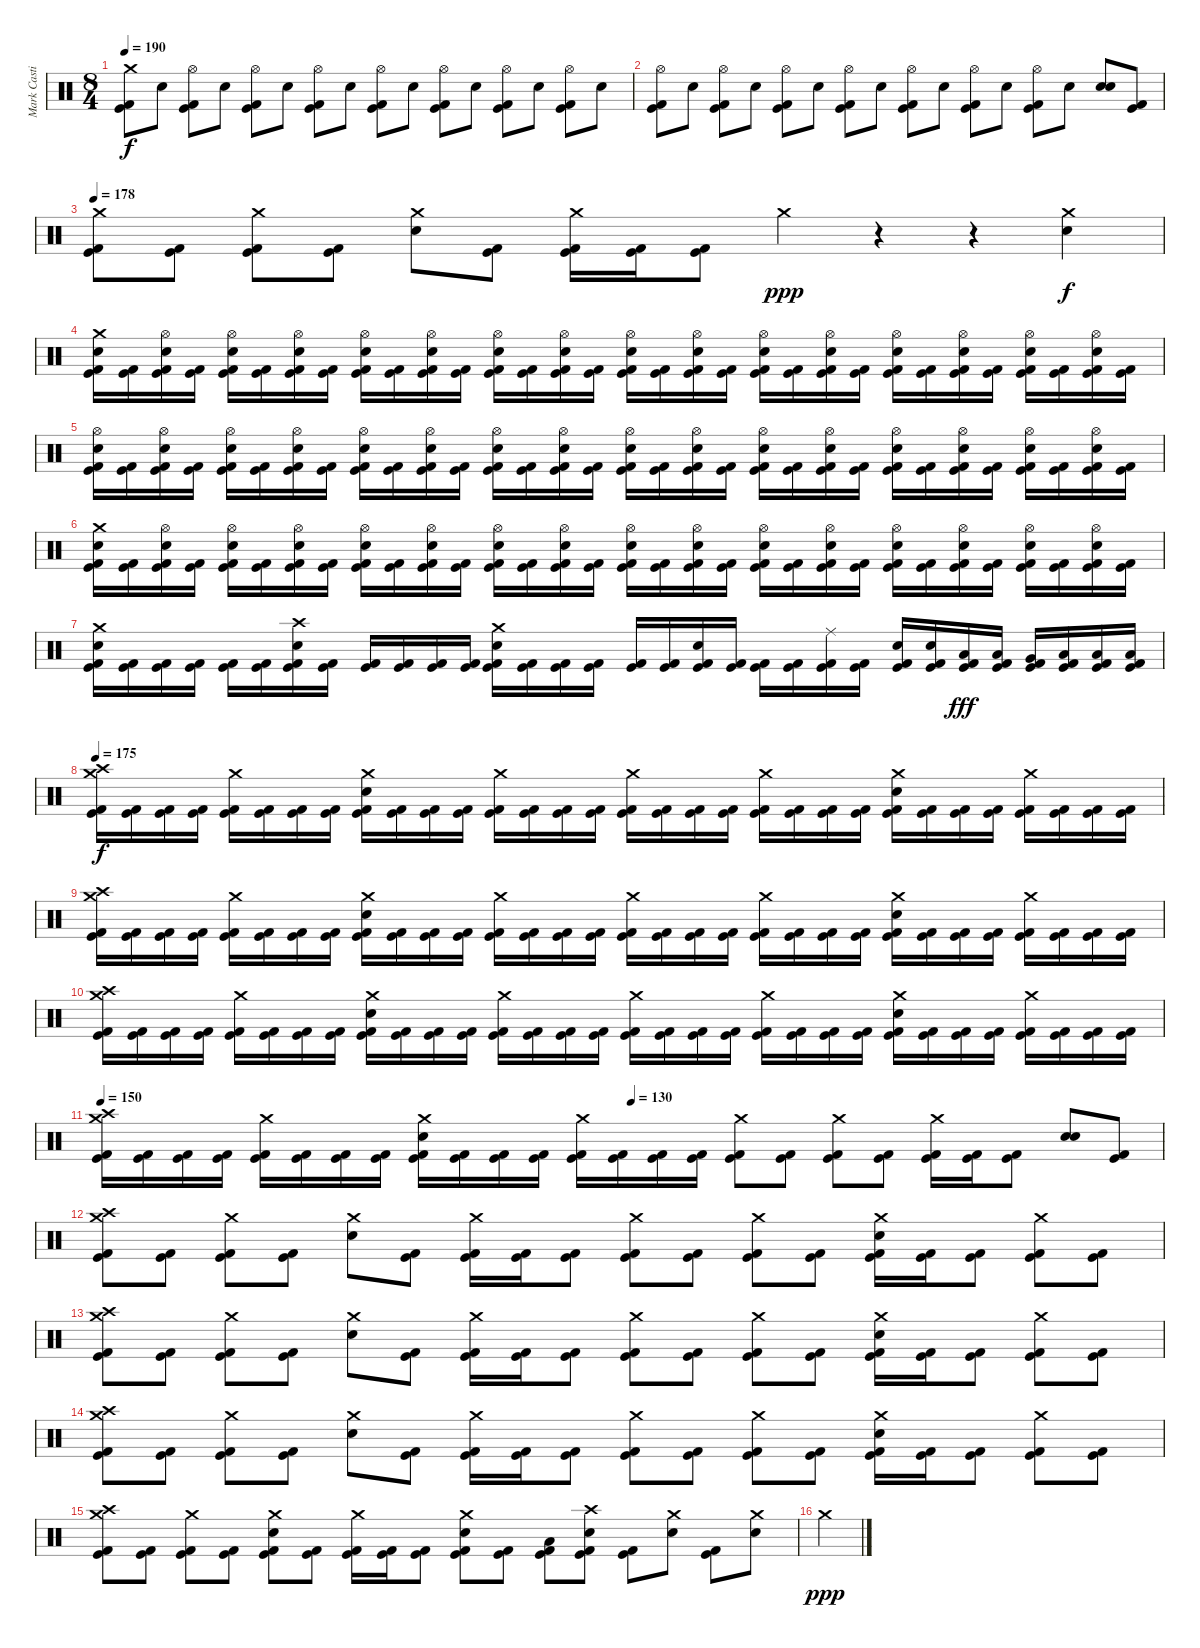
\track ("Mark Castillo" "Mark Casti") {instrument percussion}
\staff {score}
\articulation defaults
\ts (8 4)
\tempo 190
\clef neutral
\ks c
("Crash medium (hit)" "Kick (hit)" "Kick (hit) 2").8{dy f} "Electric Snare (hit)".8 ("Hi-Hat (open)" "Kick (hit)" "Kick (hit) 2").8 "Electric Snare (hit)".8 ("Hi-Hat (open)" "Kick (hit)" "Kick (hit) 2").8 "Electric Snare (hit)".8 ("Hi-Hat (open)" "Kick (hit)" "Kick (hit) 2").8 "Electric Snare (hit)".8 ("Hi-Hat (open)" "Kick (hit)" "Kick (hit) 2").8 "Electric Snare (hit)".8 ("Hi-Hat (open)" "Kick (hit)" "Kick (hit) 2").8 "Electric Snare (hit)".8 ("Hi-Hat (open)" "Kick (hit)" "Kick (hit) 2").8 "Electric Snare (hit)".8 ("Hi-Hat (open)" "Kick (hit)" "Kick (hit) 2").8 "Electric Snare (hit)".8 |
("Hi-Hat (open)" "Kick (hit)" "Kick (hit) 2").8 "Electric Snare (hit)".8 ("Hi-Hat (open)" "Kick (hit)" "Kick (hit) 2").8 "Electric Snare (hit)".8 ("Hi-Hat (open)" "Kick (hit)" "Kick (hit) 2").8 "Electric Snare (hit)".8 ("Hi-Hat (open)" "Kick (hit)" "Kick (hit) 2").8 "Electric Snare (hit)".8 ("Hi-Hat (open)" "Kick (hit)" "Kick (hit) 2").8 "Electric Snare (hit)".8 ("Hi-Hat (open)" "Kick (hit)" "Kick (hit) 2").8 "Electric Snare (hit)".8 ("Hi-Hat (open)" "Kick (hit)" "Kick (hit) 2").8 "Electric Snare (hit)".8 ("Electric Snare (hit)" "Electric Snare (hit)").8{bu 240} ("Kick (hit)" "Kick (hit) 2").8 |
\tempo 178
("Crash medium (hit)" "Kick (hit)" "Kick (hit) 2").8 ("Kick (hit)" "Kick (hit) 2").8 ("Crash medium (hit)" "Kick (hit)" "Kick (hit) 2").8 ("Kick (hit)" "Kick (hit) 2").8 ("Crash medium (hit)" "Electric Snare (hit)").8 ("Kick (hit)" "Kick (hit) 2").8 ("Crash medium (hit)" "Kick (hit)" "Kick (hit) 2").16 ("Kick (hit)" "Kick (hit) 2").16 ("Kick (hit)" "Kick (hit) 2").8 "Crash medium (hit)".4{dy ppp} r.4 r.4 ("Crash medium (hit)" "Electric Snare (hit)").4{dy f} |
("Crash medium (hit)" "Electric Snare (hit)" "Kick (hit)" "Kick (hit) 2").16 ("Kick (hit)" "Kick (hit) 2").16 ("Hi-Hat (open)" "Electric Snare (hit)" "Kick (hit)" "Kick (hit) 2").16 ("Kick (hit)" "Kick (hit) 2").16 ("Hi-Hat (open)" "Electric Snare (hit)" "Kick (hit)" "Kick (hit) 2").16 ("Kick (hit)" "Kick (hit) 2").16 ("Hi-Hat (open)" "Electric Snare (hit)" "Kick (hit)" "Kick (hit) 2").16 ("Kick (hit)" "Kick (hit) 2").16 ("Hi-Hat (open)" "Electric Snare (hit)" "Kick (hit)" "Kick (hit) 2").16 ("Kick (hit)" "Kick (hit) 2").16 ("Hi-Hat (open)" "Electric Snare (hit)" "Kick (hit)" "Kick (hit) 2").16 ("Kick (hit)" "Kick (hit) 2").16 ("Hi-Hat (open)" "Electric Snare (hit)" "Kick (hit)" "Kick (hit) 2").16 ("Kick (hit)" "Kick (hit) 2").16 ("Hi-Hat (open)" "Electric Snare (hit)" "Kick (hit)" "Kick (hit) 2").16 ("Kick (hit)" "Kick (hit) 2").16 ("Hi-Hat (open)" "Electric Snare (hit)" "Kick (hit)" "Kick (hit) 2").16 ("Kick (hit)" "Kick (hit) 2").16 ("Hi-Hat (open)" "Electric Snare (hit)" "Kick (hit)" "Kick (hit) 2").16 ("Kick (hit)" "Kick (hit) 2").16 ("Hi-Hat (open)" "Electric Snare (hit)" "Kick (hit)" "Kick (hit) 2").16 ("Kick (hit)" "Kick (hit) 2").16 ("Hi-Hat (open)" "Electric Snare (hit)" "Kick (hit)" "Kick (hit) 2").16 ("Kick (hit)" "Kick (hit) 2").16 ("Hi-Hat (open)" "Electric Snare (hit)" "Kick (hit)" "Kick (hit) 2").16 ("Kick (hit)" "Kick (hit) 2").16 ("Hi-Hat (open)" "Electric Snare (hit)" "Kick (hit)" "Kick (hit) 2").16 ("Kick (hit)" "Kick (hit) 2").16 ("Hi-Hat (open)" "Electric Snare (hit)" "Kick (hit)" "Kick (hit) 2").16 ("Kick (hit)" "Kick (hit) 2").16 ("Hi-Hat (open)" "Electric Snare (hit)" "Kick (hit)" "Kick (hit) 2").16 ("Kick (hit)" "Kick (hit) 2").16 |
("Hi-Hat (open)" "Electric Snare (hit)" "Kick (hit)" "Kick (hit) 2").16 ("Kick (hit)" "Kick (hit) 2").16 ("Hi-Hat (open)" "Electric Snare (hit)" "Kick (hit)" "Kick (hit) 2").16 ("Kick (hit)" "Kick (hit) 2").16 ("Hi-Hat (open)" "Electric Snare (hit)" "Kick (hit)" "Kick (hit) 2").16 ("Kick (hit)" "Kick (hit) 2").16 ("Hi-Hat (open)" "Electric Snare (hit)" "Kick (hit)" "Kick (hit) 2").16 ("Kick (hit)" "Kick (hit) 2").16 ("Hi-Hat (open)" "Electric Snare (hit)" "Kick (hit)" "Kick (hit) 2").16 ("Kick (hit)" "Kick (hit) 2").16 ("Hi-Hat (open)" "Electric Snare (hit)" "Kick (hit)" "Kick (hit) 2").16 ("Kick (hit)" "Kick (hit) 2").16 ("Hi-Hat (open)" "Electric Snare (hit)" "Kick (hit)" "Kick (hit) 2").16 ("Kick (hit)" "Kick (hit) 2").16 ("Hi-Hat (open)" "Electric Snare (hit)" "Kick (hit)" "Kick (hit) 2").16 ("Kick (hit)" "Kick (hit) 2").16 ("Hi-Hat (open)" "Electric Snare (hit)" "Kick (hit)" "Kick (hit) 2").16 ("Kick (hit)" "Kick (hit) 2").16 ("Hi-Hat (open)" "Electric Snare (hit)" "Kick (hit)" "Kick (hit) 2").16 ("Kick (hit)" "Kick (hit) 2").16 ("Hi-Hat (open)" "Electric Snare (hit)" "Kick (hit)" "Kick (hit) 2").16 ("Kick (hit)" "Kick (hit) 2").16 ("Hi-Hat (open)" "Electric Snare (hit)" "Kick (hit)" "Kick (hit) 2").16 ("Kick (hit)" "Kick (hit) 2").16 ("Hi-Hat (open)" "Electric Snare (hit)" "Kick (hit)" "Kick (hit) 2").16 ("Kick (hit)" "Kick (hit) 2").16 ("Hi-Hat (open)" "Electric Snare (hit)" "Kick (hit)" "Kick (hit) 2").16 ("Kick (hit)" "Kick (hit) 2").16 ("Hi-Hat (open)" "Electric Snare (hit)" "Kick (hit)" "Kick (hit) 2").16 ("Kick (hit)" "Kick (hit) 2").16 ("Hi-Hat (open)" "Electric Snare (hit)" "Kick (hit)" "Kick (hit) 2").16 ("Kick (hit)" "Kick (hit) 2").16 |
("Crash medium (hit)" "Electric Snare (hit)" "Kick (hit)" "Kick (hit) 2").16 ("Kick (hit)" "Kick (hit) 2").16 ("Hi-Hat (open)" "Electric Snare (hit)" "Kick (hit)" "Kick (hit) 2").16 ("Kick (hit)" "Kick (hit) 2").16 ("Hi-Hat (open)" "Electric Snare (hit)" "Kick (hit)" "Kick (hit) 2").16 ("Kick (hit)" "Kick (hit) 2").16 ("Hi-Hat (open)" "Electric Snare (hit)" "Kick (hit)" "Kick (hit) 2").16 ("Kick (hit)" "Kick (hit) 2").16 ("Hi-Hat (open)" "Electric Snare (hit)" "Kick (hit)" "Kick (hit) 2").16 ("Kick (hit)" "Kick (hit) 2").16 ("Hi-Hat (open)" "Electric Snare (hit)" "Kick (hit)" "Kick (hit) 2").16 ("Kick (hit)" "Kick (hit) 2").16 ("Hi-Hat (open)" "Electric Snare (hit)" "Kick (hit)" "Kick (hit) 2").16 ("Kick (hit)" "Kick (hit) 2").16 ("Hi-Hat (open)" "Electric Snare (hit)" "Kick (hit)" "Kick (hit) 2").16 ("Kick (hit)" "Kick (hit) 2").16 ("Hi-Hat (open)" "Electric Snare (hit)" "Kick (hit)" "Kick (hit) 2").16 ("Kick (hit)" "Kick (hit) 2").16 ("Hi-Hat (open)" "Electric Snare (hit)" "Kick (hit)" "Kick (hit) 2").16 ("Kick (hit)" "Kick (hit) 2").16 ("Hi-Hat (open)" "Electric Snare (hit)" "Kick (hit)" "Kick (hit) 2").16 ("Kick (hit)" "Kick (hit) 2").16 ("Hi-Hat (open)" "Electric Snare (hit)" "Kick (hit)" "Kick (hit) 2").16 ("Kick (hit)" "Kick (hit) 2").16 ("Hi-Hat (open)" "Electric Snare (hit)" "Kick (hit)" "Kick (hit) 2").16 ("Kick (hit)" "Kick (hit) 2").16 ("Hi-Hat (open)" "Electric Snare (hit)" "Kick (hit)" "Kick (hit) 2").16 ("Kick (hit)" "Kick (hit) 2").16 ("Hi-Hat (open)" "Electric Snare (hit)" "Kick (hit)" "Kick (hit) 2").16 ("Kick (hit)" "Kick (hit) 2").16 ("Hi-Hat (open)" "Electric Snare (hit)" "Kick (hit)" "Kick (hit) 2").16 ("Kick (hit)" "Kick (hit) 2").16 |
("Crash medium (hit)" "Electric Snare (hit)" "Kick (hit)" "Kick (hit) 2").16 ("Kick (hit)" "Kick (hit) 2").16 ("Kick (hit)" "Kick (hit) 2").16 ("Kick (hit)" "Kick (hit) 2").16 ("Kick (hit)" "Kick (hit) 2").16 ("Kick (hit)" "Kick (hit) 2").16 ("Crash high (hit)" "Electric Snare (hit)" "Kick (hit)" "Kick (hit) 2").16 ("Kick (hit)" "Kick (hit) 2").16 ("Kick (hit)" "Kick (hit) 2").16 ("Kick (hit)" "Kick (hit) 2").16 ("Kick (hit)" "Kick (hit) 2").16 ("Kick (hit)" "Kick (hit) 2").16 ("Crash medium (hit)" "Electric Snare (hit)" "Kick (hit)" "Kick (hit) 2").16 ("Kick (hit)" "Kick (hit) 2").16 ("Kick (hit)" "Kick (hit) 2").16 ("Kick (hit)" "Kick (hit) 2").16 ("Kick (hit)" "Kick (hit) 2").16 ("Kick (hit)" "Kick (hit) 2").16 ("Electric Snare (hit)" "Kick (hit)" "Kick (hit) 2").16 ("Kick (hit)" "Kick (hit) 2").16 ("Kick (hit)" "Kick (hit) 2").16 ("Kick (hit)" "Kick (hit) 2").16 ("Ride (middle)" "Kick (hit)" "Kick (hit) 2").16 ("Kick (hit)" "Kick (hit) 2").16 ("Electric Snare (hit)" "Kick (hit)" "Kick (hit) 2").16 ("Electric Snare (hit)" "Kick (hit)" "Kick (hit) 2").16 ("Low Tom (hit)" "Kick (hit)" "Kick (hit) 2").16{dy fff} ("Low Tom (hit)" "Kick (hit)" "Kick (hit) 2").16 ("Very Low Tom (hit)" "Kick (hit)" "Kick (hit) 2").16 ("Low Floor Tom (hit)" "Kick (hit)" "Kick (hit) 2").16 ("Low Floor Tom (hit)" "Kick (hit)" "Kick (hit) 2").16 ("Low Floor Tom (hit)" "Kick (hit)" "Kick (hit) 2").16 |
\tempo 175
("Crash medium (hit)" "Crash high (hit)" "Kick (hit)" "Kick (hit) 2").16{dy f} ("Kick (hit)" "Kick (hit) 2").16 ("Kick (hit)" "Kick (hit) 2").16 ("Kick (hit)" "Kick (hit) 2").16 ("Crash medium (hit)" "Kick (hit)" "Kick (hit) 2").16 ("Kick (hit)" "Kick (hit) 2").16 ("Kick (hit)" "Kick (hit) 2").16 ("Kick (hit)" "Kick (hit) 2").16 ("Crash medium (hit)" "Electric Snare (hit)" "Kick (hit)" "Kick (hit) 2").16 ("Kick (hit)" "Kick (hit) 2").16 ("Kick (hit)" "Kick (hit) 2").16 ("Kick (hit)" "Kick (hit) 2").16 ("Crash medium (hit)" "Kick (hit)" "Kick (hit) 2").16 ("Kick (hit)" "Kick (hit) 2").16 ("Kick (hit)" "Kick (hit) 2").16 ("Kick (hit)" "Kick (hit) 2").16 ("Crash medium (hit)" "Kick (hit)" "Kick (hit) 2").16 ("Kick (hit)" "Kick (hit) 2").16 ("Kick (hit)" "Kick (hit) 2").16 ("Kick (hit)" "Kick (hit) 2").16 ("Crash medium (hit)" "Kick (hit)" "Kick (hit) 2").16 ("Kick (hit)" "Kick (hit) 2").16 ("Kick (hit)" "Kick (hit) 2").16 ("Kick (hit)" "Kick (hit) 2").16 ("Crash medium (hit)" "Electric Snare (hit)" "Kick (hit)" "Kick (hit) 2").16 ("Kick (hit)" "Kick (hit) 2").16 ("Kick (hit)" "Kick (hit) 2").16 ("Kick (hit)" "Kick (hit) 2").16 ("Crash medium (hit)" "Kick (hit)" "Kick (hit) 2").16 ("Kick (hit)" "Kick (hit) 2").16 ("Kick (hit)" "Kick (hit) 2").16 ("Kick (hit)" "Kick (hit) 2").16 |
("Crash medium (hit)" "Crash high (hit)" "Kick (hit)" "Kick (hit) 2").16 ("Kick (hit)" "Kick (hit) 2").16 ("Kick (hit)" "Kick (hit) 2").16 ("Kick (hit)" "Kick (hit) 2").16 ("Crash medium (hit)" "Kick (hit)" "Kick (hit) 2").16 ("Kick (hit)" "Kick (hit) 2").16 ("Kick (hit)" "Kick (hit) 2").16 ("Kick (hit)" "Kick (hit) 2").16 ("Crash medium (hit)" "Electric Snare (hit)" "Kick (hit)" "Kick (hit) 2").16 ("Kick (hit)" "Kick (hit) 2").16 ("Kick (hit)" "Kick (hit) 2").16 ("Kick (hit)" "Kick (hit) 2").16 ("Crash medium (hit)" "Kick (hit)" "Kick (hit) 2").16 ("Kick (hit)" "Kick (hit) 2").16 ("Kick (hit)" "Kick (hit) 2").16 ("Kick (hit)" "Kick (hit) 2").16 ("Crash medium (hit)" "Kick (hit)" "Kick (hit) 2").16 ("Kick (hit)" "Kick (hit) 2").16 ("Kick (hit)" "Kick (hit) 2").16 ("Kick (hit)" "Kick (hit) 2").16 ("Crash medium (hit)" "Kick (hit)" "Kick (hit) 2").16 ("Kick (hit)" "Kick (hit) 2").16 ("Kick (hit)" "Kick (hit) 2").16 ("Kick (hit)" "Kick (hit) 2").16 ("Crash medium (hit)" "Electric Snare (hit)" "Kick (hit)" "Kick (hit) 2").16 ("Kick (hit)" "Kick (hit) 2").16 ("Kick (hit)" "Kick (hit) 2").16 ("Kick (hit)" "Kick (hit) 2").16 ("Crash medium (hit)" "Kick (hit)" "Kick (hit) 2").16 ("Kick (hit)" "Kick (hit) 2").16 ("Kick (hit)" "Kick (hit) 2").16 ("Kick (hit)" "Kick (hit) 2").16 |
("Crash medium (hit)" "Crash high (hit)" "Kick (hit)" "Kick (hit) 2").16 ("Kick (hit)" "Kick (hit) 2").16 ("Kick (hit)" "Kick (hit) 2").16 ("Kick (hit)" "Kick (hit) 2").16 ("Crash medium (hit)" "Kick (hit)" "Kick (hit) 2").16 ("Kick (hit)" "Kick (hit) 2").16 ("Kick (hit)" "Kick (hit) 2").16 ("Kick (hit)" "Kick (hit) 2").16 ("Crash medium (hit)" "Electric Snare (hit)" "Kick (hit)" "Kick (hit) 2").16 ("Kick (hit)" "Kick (hit) 2").16 ("Kick (hit)" "Kick (hit) 2").16 ("Kick (hit)" "Kick (hit) 2").16 ("Crash medium (hit)" "Kick (hit)" "Kick (hit) 2").16 ("Kick (hit)" "Kick (hit) 2").16 ("Kick (hit)" "Kick (hit) 2").16 ("Kick (hit)" "Kick (hit) 2").16 ("Crash medium (hit)" "Kick (hit)" "Kick (hit) 2").16 ("Kick (hit)" "Kick (hit) 2").16 ("Kick (hit)" "Kick (hit) 2").16 ("Kick (hit)" "Kick (hit) 2").16 ("Crash medium (hit)" "Kick (hit)" "Kick (hit) 2").16 ("Kick (hit)" "Kick (hit) 2").16 ("Kick (hit)" "Kick (hit) 2").16 ("Kick (hit)" "Kick (hit) 2").16 ("Crash medium (hit)" "Electric Snare (hit)" "Kick (hit)" "Kick (hit) 2").16 ("Kick (hit)" "Kick (hit) 2").16 ("Kick (hit)" "Kick (hit) 2").16 ("Kick (hit)" "Kick (hit) 2").16 ("Crash medium (hit)" "Kick (hit)" "Kick (hit) 2").16 ("Kick (hit)" "Kick (hit) 2").16 ("Kick (hit)" "Kick (hit) 2").16 ("Kick (hit)" "Kick (hit) 2").16 |
\tempo 150
\tempo (130 0.5)
("Crash medium (hit)" "Crash high (hit)" "Kick (hit)" "Kick (hit) 2").16 ("Kick (hit)" "Kick (hit) 2").16 ("Kick (hit)" "Kick (hit) 2").16 ("Kick (hit)" "Kick (hit) 2").16 ("Crash medium (hit)" "Kick (hit)" "Kick (hit) 2").16 ("Kick (hit)" "Kick (hit) 2").16 ("Kick (hit)" "Kick (hit) 2").16 ("Kick (hit)" "Kick (hit) 2").16 ("Crash medium (hit)" "Electric Snare (hit)" "Kick (hit)" "Kick (hit) 2").16 ("Kick (hit)" "Kick (hit) 2").16 ("Kick (hit)" "Kick (hit) 2").16 ("Kick (hit)" "Kick (hit) 2").16 ("Crash medium (hit)" "Kick (hit)" "Kick (hit) 2").16 ("Kick (hit)" "Kick (hit) 2").16 ("Kick (hit)" "Kick (hit) 2").16 ("Kick (hit)" "Kick (hit) 2").16 ("Crash medium (hit)" "Kick (hit)" "Kick (hit) 2").8 ("Kick (hit)" "Kick (hit) 2").8 ("Crash medium (hit)" "Kick (hit)" "Kick (hit) 2").8 ("Kick (hit)" "Kick (hit) 2").8 ("Crash medium (hit)" "Kick (hit)" "Kick (hit) 2").16 ("Kick (hit)" "Kick (hit) 2").16 ("Kick (hit)" "Kick (hit) 2").8 ("Electric Snare (hit)" "Electric Snare (hit)").8{bu 240} ("Kick (hit)" "Kick (hit) 2").8 |
("Crash medium (hit)" "Crash high (hit)" "Kick (hit)" "Kick (hit) 2").8 ("Kick (hit)" "Kick (hit) 2").8 ("Crash medium (hit)" "Kick (hit)" "Kick (hit) 2").8 ("Kick (hit)" "Kick (hit) 2").8 ("Crash medium (hit)" "Electric Snare (hit)").8 ("Kick (hit)" "Kick (hit) 2").8 ("Crash medium (hit)" "Kick (hit)" "Kick (hit) 2").16 ("Kick (hit)" "Kick (hit) 2").16 ("Kick (hit)" "Kick (hit) 2").8 ("Crash medium (hit)" "Kick (hit)" "Kick (hit) 2").8 ("Kick (hit)" "Kick (hit) 2").8 ("Crash medium (hit)" "Kick (hit)" "Kick (hit) 2").8 ("Kick (hit)" "Kick (hit) 2").8 ("Crash medium (hit)" "Electric Snare (hit)" "Kick (hit)" "Kick (hit) 2").16 ("Kick (hit)" "Kick (hit) 2").16 ("Kick (hit)" "Kick (hit) 2").8 ("Crash medium (hit)" "Kick (hit)" "Kick (hit) 2").8 ("Kick (hit)" "Kick (hit) 2").8 |
("Crash medium (hit)" "Crash high (hit)" "Kick (hit)" "Kick (hit) 2").8 ("Kick (hit)" "Kick (hit) 2").8 ("Crash medium (hit)" "Kick (hit)" "Kick (hit) 2").8 ("Kick (hit)" "Kick (hit) 2").8 ("Crash medium (hit)" "Electric Snare (hit)").8 ("Kick (hit)" "Kick (hit) 2").8 ("Crash medium (hit)" "Kick (hit)" "Kick (hit) 2").16 ("Kick (hit)" "Kick (hit) 2").16 ("Kick (hit)" "Kick (hit) 2").8 ("Crash medium (hit)" "Kick (hit)" "Kick (hit) 2").8 ("Kick (hit)" "Kick (hit) 2").8 ("Crash medium (hit)" "Kick (hit)" "Kick (hit) 2").8 ("Kick (hit)" "Kick (hit) 2").8 ("Crash medium (hit)" "Electric Snare (hit)" "Kick (hit)" "Kick (hit) 2").16 ("Kick (hit)" "Kick (hit) 2").16 ("Kick (hit)" "Kick (hit) 2").8 ("Crash medium (hit)" "Kick (hit)" "Kick (hit) 2").8 ("Kick (hit)" "Kick (hit) 2").8 |
("Crash medium (hit)" "Crash high (hit)" "Kick (hit)" "Kick (hit) 2").8 ("Kick (hit)" "Kick (hit) 2").8 ("Crash medium (hit)" "Kick (hit)" "Kick (hit) 2").8 ("Kick (hit)" "Kick (hit) 2").8 ("Crash medium (hit)" "Electric Snare (hit)").8 ("Kick (hit)" "Kick (hit) 2").8 ("Crash medium (hit)" "Kick (hit)" "Kick (hit) 2").16 ("Kick (hit)" "Kick (hit) 2").16 ("Kick (hit)" "Kick (hit) 2").8 ("Crash medium (hit)" "Kick (hit)" "Kick (hit) 2").8 ("Kick (hit)" "Kick (hit) 2").8 ("Crash medium (hit)" "Kick (hit)" "Kick (hit) 2").8 ("Kick (hit)" "Kick (hit) 2").8 ("Crash medium (hit)" "Electric Snare (hit)" "Kick (hit)" "Kick (hit) 2").16 ("Kick (hit)" "Kick (hit) 2").16 ("Kick (hit)" "Kick (hit) 2").8 ("Crash medium (hit)" "Kick (hit)" "Kick (hit) 2").8 ("Kick (hit)" "Kick (hit) 2").8 |
("Crash medium (hit)" "Crash high (hit)" "Kick (hit)" "Kick (hit) 2").8 ("Kick (hit)" "Kick (hit) 2").8 ("Crash medium (hit)" "Kick (hit)" "Kick (hit) 2").8 ("Kick (hit)" "Kick (hit) 2").8 ("Crash medium (hit)" "Electric Snare (hit)" "Kick (hit)" "Kick (hit) 2").8 ("Kick (hit)" "Kick (hit) 2").8 ("Crash medium (hit)" "Kick (hit)" "Kick (hit) 2").16 ("Kick (hit)" "Kick (hit) 2").16 ("Kick (hit)" "Kick (hit) 2").8 ("Crash medium (hit)" "Electric Snare (hit)" "Kick (hit)" "Kick (hit) 2").8 ("Kick (hit)" "Kick (hit) 2").8 ("Low Tom (hit)" "Kick (hit)" "Kick (hit) 2").8 ("Crash high (hit)" "Electric Snare (hit)" "Kick (hit)" "Kick (hit) 2").8 ("Kick (hit)" "Kick (hit) 2").8 ("Crash medium (hit)" "Electric Snare (hit)").8 ("Kick (hit)" "Kick (hit) 2").8 ("Crash medium (hit)" "Electric Snare (hit)").8 |
"Crash medium (hit)".4{dy ppp}
